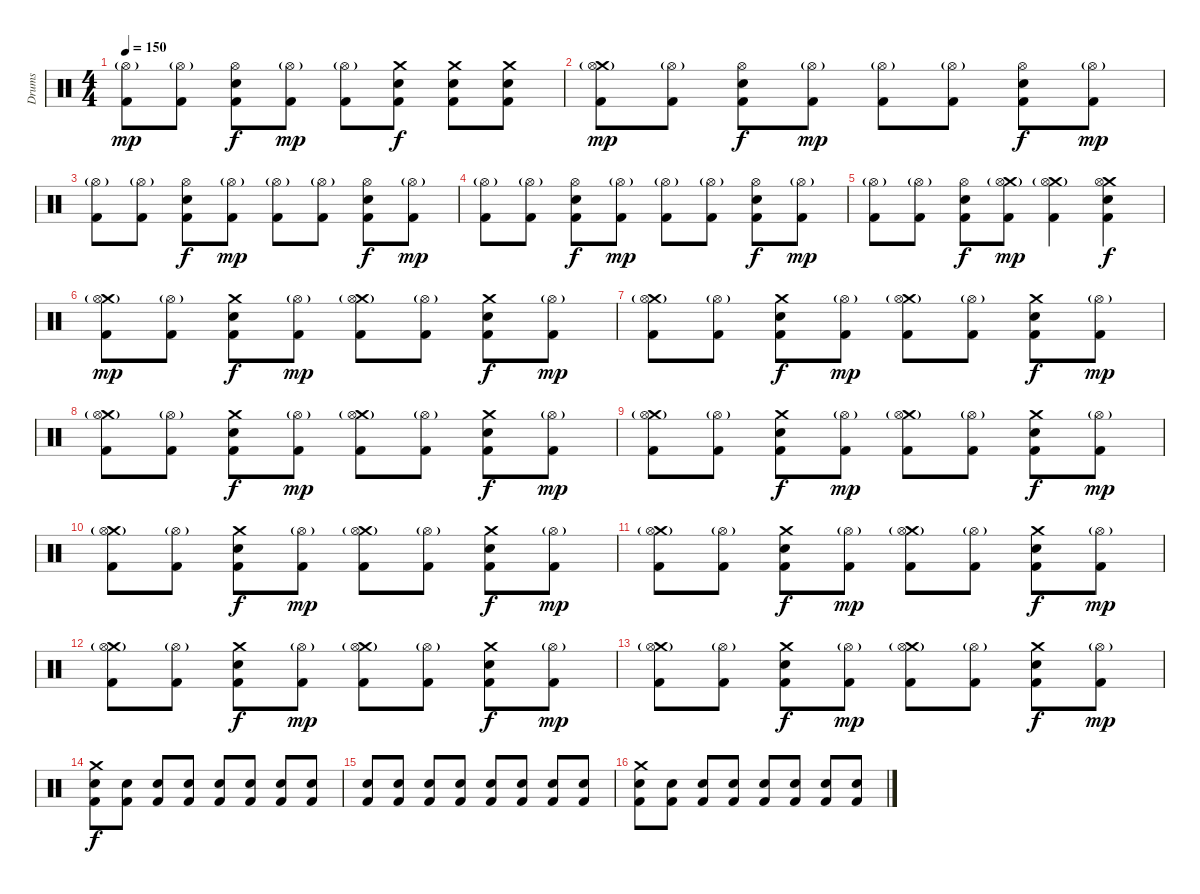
\track ("Drums" "Drums") {instrument percussion}
\staff {score}
\articulation defaults
\ts (4 4)
\tempo 150
\clef neutral
\ks c
("Hi-Hat (open)"{g} "Kick (hit) 2").8{dy mp} ("Hi-Hat (open)"{g} "Kick (hit) 2").8 ("Hi-Hat (open)" "Electric Snare (hit)" "Kick (hit) 2").8{dy f} ("Hi-Hat (open)"{g} "Kick (hit) 2").8{dy mp} ("Hi-Hat (open)"{g} "Kick (hit) 2").8 ("Crash medium (hit)" "Electric Snare (hit)" "Kick (hit) 2").8{dy f} ("Crash medium (hit)" "Electric Snare (hit)" "Kick (hit) 2").8 ("Crash medium (hit)" "Electric Snare (hit)" "Kick (hit) 2").8 |
("Crash medium (hit)" "Hi-Hat (open)"{g} "Kick (hit) 2").8{dy mp} ("Hi-Hat (open)"{g} "Kick (hit) 2").8 ("Hi-Hat (open)" "Electric Snare (hit)" "Kick (hit) 2").8{dy f} ("Hi-Hat (open)"{g} "Kick (hit) 2").8{dy mp} ("Hi-Hat (open)"{g} "Kick (hit) 2").8 ("Hi-Hat (open)"{g} "Kick (hit) 2").8 ("Hi-Hat (open)" "Electric Snare (hit)" "Kick (hit) 2").8{dy f} ("Hi-Hat (open)"{g} "Kick (hit) 2").8{dy mp} |
("Hi-Hat (open)"{g} "Kick (hit) 2").8 ("Hi-Hat (open)"{g} "Kick (hit) 2").8 ("Hi-Hat (open)" "Electric Snare (hit)" "Kick (hit) 2").8{dy f} ("Hi-Hat (open)"{g} "Kick (hit) 2").8{dy mp} ("Hi-Hat (open)"{g} "Kick (hit) 2").8 ("Hi-Hat (open)"{g} "Kick (hit) 2").8 ("Hi-Hat (open)" "Electric Snare (hit)" "Kick (hit) 2").8{dy f} ("Hi-Hat (open)"{g} "Kick (hit) 2").8{dy mp} |
("Hi-Hat (open)"{g} "Kick (hit) 2").8 ("Hi-Hat (open)"{g} "Kick (hit) 2").8 ("Hi-Hat (open)" "Electric Snare (hit)" "Kick (hit) 2").8{dy f} ("Hi-Hat (open)"{g} "Kick (hit) 2").8{dy mp} ("Hi-Hat (open)"{g} "Kick (hit) 2").8 ("Hi-Hat (open)"{g} "Kick (hit) 2").8 ("Hi-Hat (open)" "Electric Snare (hit)" "Kick (hit) 2").8{dy f} ("Hi-Hat (open)"{g} "Kick (hit) 2").8{dy mp} |
("Hi-Hat (open)"{g} "Kick (hit) 2").8 ("Hi-Hat (open)"{g} "Kick (hit) 2").8 ("Hi-Hat (open)" "Electric Snare (hit)" "Kick (hit) 2").8{dy f} ("Crash medium (hit)" "Hi-Hat (open)"{g} "Kick (hit) 2").8{dy mp} ("Crash medium (hit)" "Hi-Hat (open)"{g} "Kick (hit) 2").4 ("Crash medium (hit)" "Hi-Hat (open)" "Electric Snare (hit)" "Kick (hit) 2").4{dy f} |
("Crash medium (hit)" "Hi-Hat (open)"{g} "Kick (hit) 2").8{dy mp} ("Hi-Hat (open)"{g} "Kick (hit) 2").8 ("Crash medium (hit)" "Electric Snare (hit)" "Kick (hit) 2").8{dy f} ("Hi-Hat (open)"{g} "Kick (hit) 2").8{dy mp} ("Crash medium (hit)" "Hi-Hat (open)"{g} "Kick (hit) 2").8 ("Hi-Hat (open)"{g} "Kick (hit) 2").8 ("Crash medium (hit)" "Electric Snare (hit)" "Kick (hit) 2").8{dy f} ("Hi-Hat (open)"{g} "Kick (hit) 2").8{dy mp} |
("Crash medium (hit)" "Hi-Hat (open)"{g} "Kick (hit) 2").8 ("Hi-Hat (open)"{g} "Kick (hit) 2").8 ("Crash medium (hit)" "Electric Snare (hit)" "Kick (hit) 2").8{dy f} ("Hi-Hat (open)"{g} "Kick (hit) 2").8{dy mp} ("Crash medium (hit)" "Hi-Hat (open)"{g} "Kick (hit) 2").8 ("Hi-Hat (open)"{g} "Kick (hit) 2").8 ("Crash medium (hit)" "Electric Snare (hit)" "Kick (hit) 2").8{dy f} ("Hi-Hat (open)"{g} "Kick (hit) 2").8{dy mp} |
("Crash medium (hit)" "Hi-Hat (open)"{g} "Kick (hit) 2").8 ("Hi-Hat (open)"{g} "Kick (hit) 2").8 ("Crash medium (hit)" "Electric Snare (hit)" "Kick (hit) 2").8{dy f} ("Hi-Hat (open)"{g} "Kick (hit) 2").8{dy mp} ("Crash medium (hit)" "Hi-Hat (open)"{g} "Kick (hit) 2").8 ("Hi-Hat (open)"{g} "Kick (hit) 2").8 ("Crash medium (hit)" "Electric Snare (hit)" "Kick (hit) 2").8{dy f} ("Hi-Hat (open)"{g} "Kick (hit) 2").8{dy mp} |
("Crash medium (hit)" "Hi-Hat (open)"{g} "Kick (hit) 2").8 ("Hi-Hat (open)"{g} "Kick (hit) 2").8 ("Crash medium (hit)" "Electric Snare (hit)" "Kick (hit) 2").8{dy f} ("Hi-Hat (open)"{g} "Kick (hit) 2").8{dy mp} ("Crash medium (hit)" "Hi-Hat (open)"{g} "Kick (hit) 2").8 ("Hi-Hat (open)"{g} "Kick (hit) 2").8 ("Crash medium (hit)" "Electric Snare (hit)" "Kick (hit) 2").8{dy f} ("Hi-Hat (open)"{g} "Kick (hit) 2").8{dy mp} |
("Crash medium (hit)" "Hi-Hat (open)"{g} "Kick (hit) 2").8 ("Hi-Hat (open)"{g} "Kick (hit) 2").8 ("Crash medium (hit)" "Electric Snare (hit)" "Kick (hit) 2").8{dy f} ("Hi-Hat (open)"{g} "Kick (hit) 2").8{dy mp} ("Crash medium (hit)" "Hi-Hat (open)"{g} "Kick (hit) 2").8 ("Hi-Hat (open)"{g} "Kick (hit) 2").8 ("Crash medium (hit)" "Electric Snare (hit)" "Kick (hit) 2").8{dy f} ("Hi-Hat (open)"{g} "Kick (hit) 2").8{dy mp} |
("Crash medium (hit)" "Hi-Hat (open)"{g} "Kick (hit) 2").8 ("Hi-Hat (open)"{g} "Kick (hit) 2").8 ("Crash medium (hit)" "Electric Snare (hit)" "Kick (hit) 2").8{dy f} ("Hi-Hat (open)"{g} "Kick (hit) 2").8{dy mp} ("Crash medium (hit)" "Hi-Hat (open)"{g} "Kick (hit) 2").8 ("Hi-Hat (open)"{g} "Kick (hit) 2").8 ("Crash medium (hit)" "Electric Snare (hit)" "Kick (hit) 2").8{dy f} ("Hi-Hat (open)"{g} "Kick (hit) 2").8{dy mp} |
("Crash medium (hit)" "Hi-Hat (open)"{g} "Kick (hit) 2").8 ("Hi-Hat (open)"{g} "Kick (hit) 2").8 ("Crash medium (hit)" "Electric Snare (hit)" "Kick (hit) 2").8{dy f} ("Hi-Hat (open)"{g} "Kick (hit) 2").8{dy mp} ("Crash medium (hit)" "Hi-Hat (open)"{g} "Kick (hit) 2").8 ("Hi-Hat (open)"{g} "Kick (hit) 2").8 ("Crash medium (hit)" "Electric Snare (hit)" "Kick (hit) 2").8{dy f} ("Hi-Hat (open)"{g} "Kick (hit) 2").8{dy mp} |
("Crash medium (hit)" "Hi-Hat (open)"{g} "Kick (hit) 2").8 ("Hi-Hat (open)"{g} "Kick (hit) 2").8 ("Crash medium (hit)" "Electric Snare (hit)" "Kick (hit) 2").8{dy f} ("Hi-Hat (open)"{g} "Kick (hit) 2").8{dy mp} ("Crash medium (hit)" "Hi-Hat (open)"{g} "Kick (hit) 2").8 ("Hi-Hat (open)"{g} "Kick (hit) 2").8 ("Crash medium (hit)" "Electric Snare (hit)" "Kick (hit) 2").8{dy f} ("Hi-Hat (open)"{g} "Kick (hit) 2").8{dy mp} |
("Crash medium (hit)" "Electric Snare (hit)" "Kick (hit) 2").8{dy f} ("Electric Snare (hit)" "Kick (hit) 2").8 ("Electric Snare (hit)" "Kick (hit) 2").8 ("Electric Snare (hit)" "Kick (hit) 2").8 ("Electric Snare (hit)" "Kick (hit) 2").8 ("Electric Snare (hit)" "Kick (hit) 2").8 ("Electric Snare (hit)" "Kick (hit) 2").8 ("Electric Snare (hit)" "Kick (hit) 2").8 |
("Electric Snare (hit)" "Kick (hit) 2").8 ("Electric Snare (hit)" "Kick (hit) 2").8 ("Electric Snare (hit)" "Kick (hit) 2").8 ("Electric Snare (hit)" "Kick (hit) 2").8 ("Electric Snare (hit)" "Kick (hit) 2").8 ("Electric Snare (hit)" "Kick (hit) 2").8 ("Electric Snare (hit)" "Kick (hit) 2").8 ("Electric Snare (hit)" "Kick (hit) 2").8 |
("Crash medium (hit)" "Electric Snare (hit)" "Kick (hit) 2").8 ("Electric Snare (hit)" "Kick (hit) 2").8 ("Electric Snare (hit)" "Kick (hit) 2").8 ("Electric Snare (hit)" "Kick (hit) 2").8 ("Electric Snare (hit)" "Kick (hit) 2").8 ("Electric Snare (hit)" "Kick (hit) 2").8 ("Electric Snare (hit)" "Kick (hit) 2").8 ("Electric Snare (hit)" "Kick (hit) 2").8
